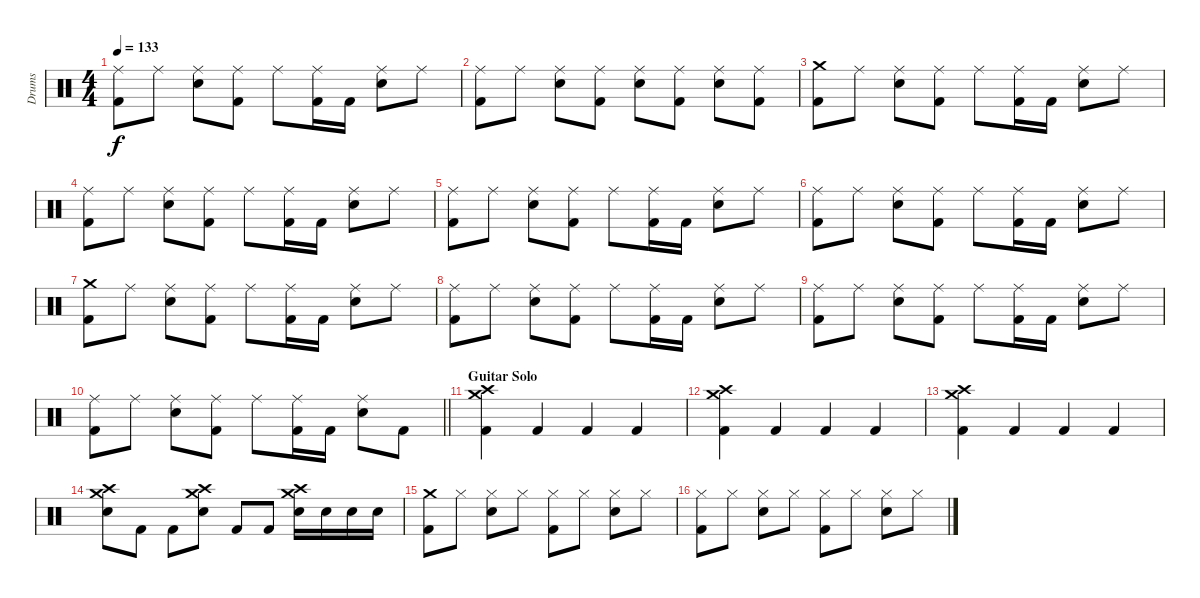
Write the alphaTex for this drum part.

\track ("Drums" "Drums") {instrument percussion}
\staff {score}
\articulation defaults
\ts (4 4)
\tempo 133
\clef neutral
\ks c
("Ride (middle)" "Kick (hit) 2").8{dy f} "Ride (middle)".8 ("Ride (middle)" "Snare (hit) 2").8 ("Ride (middle)" "Kick (hit) 2").8 "Ride (middle)".8 ("Ride (middle)" "Kick (hit) 2").16 "Kick (hit) 2".16 ("Ride (middle)" "Snare (hit) 2").8 "Ride (middle)".8 |
("Ride (middle)" "Kick (hit) 2").8 "Ride (middle)".8 ("Ride (middle)" "Snare (hit) 2").8 ("Ride (middle)" "Kick (hit) 2").8 ("Ride (middle)" "Snare (hit) 2").8 ("Ride (middle)" "Kick (hit) 2").8 ("Ride (middle)" "Snare (hit) 2").8 ("Ride (middle)" "Kick (hit) 2").8 |
("Crash medium (hit)" "Kick (hit) 2").8 "Ride (middle)".8 ("Ride (middle)" "Snare (hit) 2").8 ("Ride (middle)" "Kick (hit) 2").8 "Ride (middle)".8 ("Ride (middle)" "Kick (hit) 2").16 "Kick (hit) 2".16 ("Ride (middle)" "Snare (hit) 2").8 "Ride (middle)".8 |
("Ride (middle)" "Kick (hit) 2").8 "Ride (middle)".8 ("Ride (middle)" "Snare (hit) 2").8 ("Ride (middle)" "Kick (hit) 2").8 "Ride (middle)".8 ("Ride (middle)" "Kick (hit) 2").16 "Kick (hit) 2".16 ("Ride (middle)" "Snare (hit) 2").8 "Ride (middle)".8 |
("Ride (middle)" "Kick (hit) 2").8 "Ride (middle)".8 ("Ride (middle)" "Snare (hit) 2").8 ("Ride (middle)" "Kick (hit) 2").8 "Ride (middle)".8 ("Ride (middle)" "Kick (hit) 2").16 "Kick (hit) 2".16 ("Ride (middle)" "Snare (hit) 2").8 "Ride (middle)".8 |
("Ride (middle)" "Kick (hit) 2").8 "Ride (middle)".8 ("Ride (middle)" "Snare (hit) 2").8 ("Ride (middle)" "Kick (hit) 2").8 "Ride (middle)".8 ("Ride (middle)" "Kick (hit) 2").16 "Kick (hit) 2".16 ("Ride (middle)" "Snare (hit) 2").8 "Ride (middle)".8 |
("Crash medium (hit)" "Kick (hit) 2").8 "Ride (middle)".8 ("Ride (middle)" "Snare (hit) 2").8 ("Ride (middle)" "Kick (hit) 2").8 "Ride (middle)".8 ("Ride (middle)" "Kick (hit) 2").16 "Kick (hit) 2".16 ("Ride (middle)" "Snare (hit) 2").8 "Ride (middle)".8 |
("Ride (middle)" "Kick (hit) 2").8 "Ride (middle)".8 ("Ride (middle)" "Snare (hit) 2").8 ("Ride (middle)" "Kick (hit) 2").8 "Ride (middle)".8 ("Ride (middle)" "Kick (hit) 2").16 "Kick (hit) 2".16 ("Ride (middle)" "Snare (hit) 2").8 "Ride (middle)".8 |
("Ride (middle)" "Kick (hit) 2").8 "Ride (middle)".8 ("Ride (middle)" "Snare (hit) 2").8 ("Ride (middle)" "Kick (hit) 2").8 "Ride (middle)".8 ("Ride (middle)" "Kick (hit) 2").16 "Kick (hit) 2".16 ("Ride (middle)" "Snare (hit) 2").8 "Ride (middle)".8 |
\barLineRight lightlight
("Ride (middle)" "Kick (hit) 2").8 "Ride (middle)".8 ("Ride (middle)" "Snare (hit) 2").8 ("Ride (middle)" "Kick (hit) 2").8 "Ride (middle)".8 ("Ride (middle)" "Kick (hit) 2").16 "Kick (hit) 2".16 ("Ride (middle)" "Snare (hit) 2").8 "Kick (hit) 2".8 |
\section ("" "Guitar Solo")
("Crash medium (hit)" "Crash high (hit)" "Kick (hit) 2").4 "Kick (hit) 2".4 "Kick (hit) 2".4 "Kick (hit) 2".4 |
("Crash medium (hit)" "Crash high (hit)" "Kick (hit) 2").4 "Kick (hit) 2".4 "Kick (hit) 2".4 "Kick (hit) 2".4 |
("Crash medium (hit)" "Crash high (hit)" "Kick (hit) 2").4 "Kick (hit) 2".4 "Kick (hit) 2".4 "Kick (hit) 2".4 |
("Crash medium (hit)" "Crash high (hit)" "Snare (hit) 2").8 "Kick (hit) 2".8 "Kick (hit) 2".8 ("Crash medium (hit)" "Crash high (hit)" "Snare (hit) 2").8 "Kick (hit) 2".8 "Kick (hit) 2".8 ("Crash medium (hit)" "Crash high (hit)" "Snare (hit) 2").16 "Snare (hit) 2".16 "Snare (hit) 2".16 "Snare (hit) 2".16 |
("Crash medium (hit)" "Kick (hit) 2").8 "Hi-Hat (closed)".8 ("Hi-Hat (closed)" "Snare (hit) 2").8 "Hi-Hat (closed)".8 ("Hi-Hat (closed)" "Kick (hit) 2").8 "Hi-Hat (closed)".8 ("Hi-Hat (closed)" "Snare (hit) 2").8 "Hi-Hat (closed)".8 |
("Hi-Hat (closed)" "Kick (hit) 2").8 "Hi-Hat (closed)".8 ("Hi-Hat (closed)" "Snare (hit) 2").8 "Hi-Hat (closed)".8 ("Hi-Hat (closed)" "Kick (hit) 2").8 "Hi-Hat (closed)".8 ("Hi-Hat (closed)" "Snare (hit) 2").8 "Hi-Hat (closed)".8
